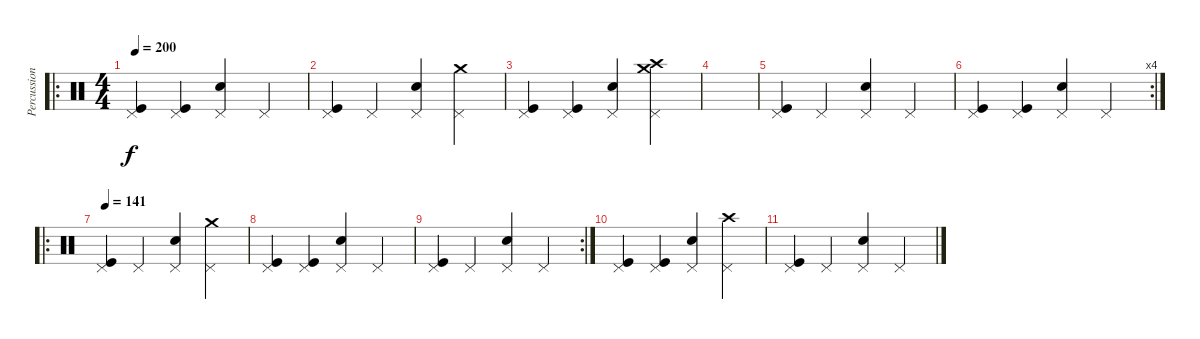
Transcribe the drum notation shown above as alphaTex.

\track ("Percussions" "Percussion") {instrument percussion}
\staff {score}
\articulation defaults
\ro
\ts (4 4)
\tempo 200
\clef neutral
\ks c
("Kick (hit)" "Pedal Hi-Hat (hit)").4{dy f} ("Kick (hit)" "Pedal Hi-Hat (hit)").4 ("Electric Snare (hit)" "Pedal Hi-Hat (hit)").4 "Pedal Hi-Hat (hit)".4 |
("Kick (hit)" "Pedal Hi-Hat (hit)").4 "Pedal Hi-Hat (hit)".4 ("Electric Snare (hit)" "Pedal Hi-Hat (hit)").4 ("Pedal Hi-Hat (hit)" "Crash medium (hit)").4 |
("Kick (hit)" "Pedal Hi-Hat (hit)").4 ("Kick (hit)" "Pedal Hi-Hat (hit)").4 ("Electric Snare (hit)" "Pedal Hi-Hat (hit)").4 ("Pedal Hi-Hat (hit)" "Crash medium (hit)" "Crash high (hit)").4 |
|
("Kick (hit)" "Pedal Hi-Hat (hit)").4 "Pedal Hi-Hat (hit)".4 ("Electric Snare (hit)" "Pedal Hi-Hat (hit)").4 "Pedal Hi-Hat (hit)".4 |
\rc 4
("Kick (hit)" "Pedal Hi-Hat (hit)").4 ("Kick (hit)" "Pedal Hi-Hat (hit)").4 ("Electric Snare (hit)" "Pedal Hi-Hat (hit)").4 "Pedal Hi-Hat (hit)".4 |
\ro
\tempo 141
("Kick (hit)" "Pedal Hi-Hat (hit)").4 "Pedal Hi-Hat (hit)".4 ("Electric Snare (hit)" "Pedal Hi-Hat (hit)").4 ("Pedal Hi-Hat (hit)" "Crash medium (hit)").4 |
("Kick (hit)" "Pedal Hi-Hat (hit)").4 ("Kick (hit)" "Pedal Hi-Hat (hit)").4 ("Electric Snare (hit)" "Pedal Hi-Hat (hit)").4 "Pedal Hi-Hat (hit)".4 |
\rc 2
("Kick (hit)" "Pedal Hi-Hat (hit)").4 "Pedal Hi-Hat (hit)".4 ("Electric Snare (hit)" "Pedal Hi-Hat (hit)").4 "Pedal Hi-Hat (hit)".4 |
("Kick (hit)" "Pedal Hi-Hat (hit)").4 ("Kick (hit)" "Pedal Hi-Hat (hit)").4 ("Electric Snare (hit)" "Pedal Hi-Hat (hit)").4 ("Pedal Hi-Hat (hit)" "Crash high (hit)").4 |
("Kick (hit)" "Pedal Hi-Hat (hit)").4 "Pedal Hi-Hat (hit)".4 ("Electric Snare (hit)" "Pedal Hi-Hat (hit)").4 "Pedal Hi-Hat (hit)".4
